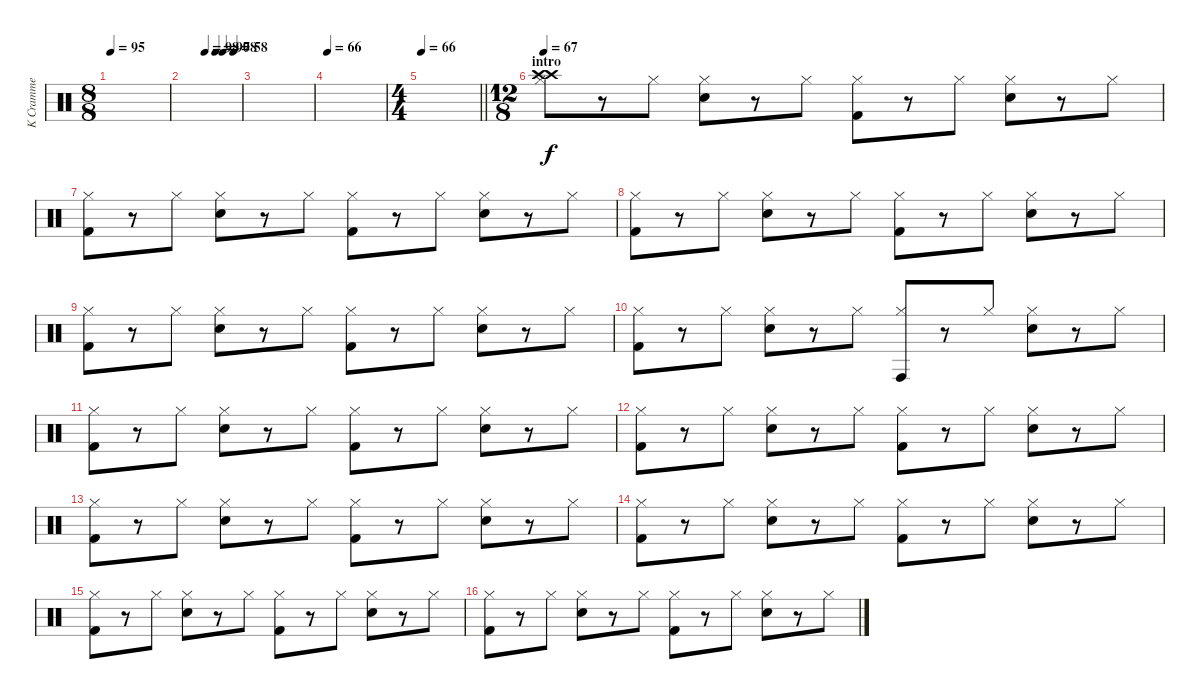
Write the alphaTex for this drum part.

\track ("K Cramme" "K Cramme") {instrument percussion}
\staff {score}
\articulation defaults
\ts (8 8)
\tempo 95
\clef neutral
\ks c
|
\tempo (98 0.375)
\tempo (90 0.5625)
\tempo (78 0.6875)
\tempo (58 0.875)
|
|
\tempo 66
|
\ts (4 4)
\tempo 66
\barLineRight lightlight
|
\ts (12 8)
\section ("" "intro")
\tempo 67
("Crash high (hit)" "Crash high (hit)" "Hi-Hat (closed)").8 r.8 "Hi-Hat (closed)".8 ("Snare (hit) 2" "Hi-Hat (closed)").8 r.8 "Hi-Hat (closed)".8 ("Kick (hit) 2" "Hi-Hat (closed)").8 r.8 "Hi-Hat (closed)".8 ("Snare (hit) 2" "Hi-Hat (closed)").8 r.8 "Hi-Hat (closed)".8 |
("Kick (hit) 2" "Hi-Hat (closed)").8 r.8 "Hi-Hat (closed)".8 ("Snare (hit) 2" "Hi-Hat (closed)").8 r.8 "Hi-Hat (closed)".8 ("Kick (hit) 2" "Hi-Hat (closed)").8 r.8 "Hi-Hat (closed)".8 ("Snare (hit) 2" "Hi-Hat (closed)").8 r.8 "Hi-Hat (closed)".8 |
("Kick (hit) 2" "Hi-Hat (closed)").8 r.8 "Hi-Hat (closed)".8 ("Snare (hit) 2" "Hi-Hat (closed)").8 r.8 "Hi-Hat (closed)".8 ("Kick (hit) 2" "Hi-Hat (closed)").8 r.8 "Hi-Hat (closed)".8 ("Snare (hit) 2" "Hi-Hat (closed)").8 r.8 "Hi-Hat (closed)".8 |
("Kick (hit) 2" "Hi-Hat (closed)").8 r.8 "Hi-Hat (closed)".8 ("Snare (hit) 2" "Hi-Hat (closed)").8 r.8 "Hi-Hat (closed)".8 ("Kick (hit) 2" "Hi-Hat (closed)").8 r.8 "Hi-Hat (closed)".8 ("Snare (hit) 2" "Hi-Hat (closed)").8 r.8 "Hi-Hat (closed)".8 |
("Kick (hit) 2" "Hi-Hat (closed)").8 r.8 "Hi-Hat (closed)".8 ("Snare (hit) 2" "Hi-Hat (closed)").8 r.8 "Hi-Hat (closed)".8 ("Conga high (hit)" "Hi-Hat (closed)").8 r.8 "Hi-Hat (closed)".8 ("Snare (hit) 2" "Hi-Hat (closed)").8 r.8 "Hi-Hat (closed)".8 |
("Kick (hit) 2" "Hi-Hat (closed)").8 r.8 "Hi-Hat (closed)".8 ("Snare (hit) 2" "Hi-Hat (closed)").8 r.8 "Hi-Hat (closed)".8 ("Kick (hit) 2" "Hi-Hat (closed)").8 r.8 "Hi-Hat (closed)".8 ("Snare (hit) 2" "Hi-Hat (closed)").8 r.8 "Hi-Hat (closed)".8 |
("Kick (hit) 2" "Hi-Hat (closed)").8 r.8 "Hi-Hat (closed)".8 ("Snare (hit) 2" "Hi-Hat (closed)").8 r.8 "Hi-Hat (closed)".8 ("Kick (hit) 2" "Hi-Hat (closed)").8 r.8 "Hi-Hat (closed)".8 ("Snare (hit) 2" "Hi-Hat (closed)").8 r.8 "Hi-Hat (closed)".8 |
("Kick (hit) 2" "Hi-Hat (closed)").8 r.8 "Hi-Hat (closed)".8 ("Snare (hit) 2" "Hi-Hat (closed)").8 r.8 "Hi-Hat (closed)".8 ("Kick (hit) 2" "Hi-Hat (closed)").8 r.8 "Hi-Hat (closed)".8 ("Snare (hit) 2" "Hi-Hat (closed)").8 r.8 "Hi-Hat (closed)".8 |
("Kick (hit) 2" "Hi-Hat (closed)").8 r.8 "Hi-Hat (closed)".8 ("Snare (hit) 2" "Hi-Hat (closed)").8 r.8 "Hi-Hat (closed)".8 ("Kick (hit) 2" "Hi-Hat (closed)").8 r.8 "Hi-Hat (closed)".8 ("Snare (hit) 2" "Hi-Hat (closed)").8 r.8 "Hi-Hat (closed)".8 |
("Kick (hit) 2" "Hi-Hat (closed)").8 r.8 "Hi-Hat (closed)".8 ("Snare (hit) 2" "Hi-Hat (closed)").8 r.8 "Hi-Hat (closed)".8 ("Kick (hit) 2" "Hi-Hat (closed)").8 r.8 "Hi-Hat (closed)".8 ("Snare (hit) 2" "Hi-Hat (closed)").8 r.8 "Hi-Hat (closed)".8 |
("Kick (hit) 2" "Hi-Hat (closed)").8 r.8 "Hi-Hat (closed)".8 ("Snare (hit) 2" "Hi-Hat (closed)").8 r.8 "Hi-Hat (closed)".8 ("Kick (hit) 2" "Hi-Hat (closed)").8 r.8 "Hi-Hat (closed)".8 ("Snare (hit) 2" "Hi-Hat (closed)").8 r.8 "Hi-Hat (closed)".8
